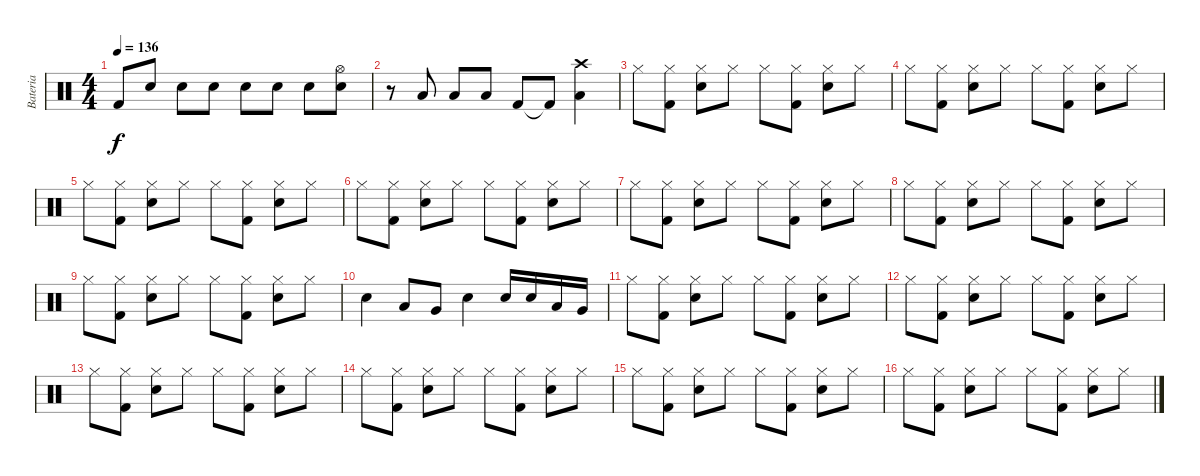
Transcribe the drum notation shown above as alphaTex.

\track ("Bateria" "Bateria") {instrument percussion}
\staff {score}
\articulation defaults
\ts (4 4)
\tempo 136
\clef neutral
\ks c "Kick (hit) 2".8{dy f} "Snare (hit) 2".8 "Snare (hit) 2".8 "Snare (hit) 2".8 "Snare (hit) 2".8 "Snare (hit) 2".8 "Snare (hit) 2".8
("Hi-Hat (open)" "Snare (hit) 2").8 |
r.8 "Low Tom (hit)".8 "Low Tom (hit)".8 "Low Tom (hit)".8 "Kick (hit) 2".8 "Kick (hit) 2"{t}.8 ("Low Tom (hit)" "Crash high (hit)").4 |
"Hi-Hat (closed)".8 ("Kick (hit) 2" "Hi-Hat (closed)").8 ("Snare (hit) 2" "Hi-Hat (closed)").8 "Hi-Hat (closed)".8 "Hi-Hat (closed)".8 ("Kick (hit) 2" "Hi-Hat (closed)").8 ("Hi-Hat (closed)" "Snare (hit) 2").8 "Hi-Hat (closed)".8 |
"Hi-Hat (closed)".8 ("Kick (hit) 2" "Hi-Hat (closed)").8 ("Snare (hit) 2" "Hi-Hat (closed)").8 "Hi-Hat (closed)".8 "Hi-Hat (closed)".8 ("Kick (hit) 2" "Hi-Hat (closed)").8 ("Hi-Hat (closed)" "Snare (hit) 2").8 "Hi-Hat (closed)".8 |
"Hi-Hat (closed)".8 ("Kick (hit) 2" "Hi-Hat (closed)").8 ("Snare (hit) 2" "Hi-Hat (closed)").8 "Hi-Hat (closed)".8 "Hi-Hat (closed)".8 ("Kick (hit) 2" "Hi-Hat (closed)").8 ("Hi-Hat (closed)" "Snare (hit) 2").8 "Hi-Hat (closed)".8 |
"Hi-Hat (closed)".8 ("Kick (hit) 2" "Hi-Hat (closed)").8 ("Snare (hit) 2" "Hi-Hat (closed)").8 "Hi-Hat (closed)".8 "Hi-Hat (closed)".8 ("Kick (hit) 2" "Hi-Hat (closed)").8 ("Hi-Hat (closed)" "Snare (hit) 2").8 "Hi-Hat (closed)".8 |
"Hi-Hat (closed)".8 ("Kick (hit) 2" "Hi-Hat (closed)").8 ("Snare (hit) 2" "Hi-Hat (closed)").8 "Hi-Hat (closed)".8 "Hi-Hat (closed)".8 ("Kick (hit) 2" "Hi-Hat (closed)").8 ("Hi-Hat (closed)" "Snare (hit) 2").8 "Hi-Hat (closed)".8 |
"Hi-Hat (closed)".8 ("Kick (hit) 2" "Hi-Hat (closed)").8 ("Snare (hit) 2" "Hi-Hat (closed)").8 "Hi-Hat (closed)".8 "Hi-Hat (closed)".8 ("Kick (hit) 2" "Hi-Hat (closed)").8 ("Hi-Hat (closed)" "Snare (hit) 2").8 "Hi-Hat (closed)".8 |
"Hi-Hat (closed)".8 ("Kick (hit) 2" "Hi-Hat (closed)").8 ("Snare (hit) 2" "Hi-Hat (closed)").8 "Hi-Hat (closed)".8 "Hi-Hat (closed)".8 ("Kick (hit) 2" "Hi-Hat (closed)").8 ("Hi-Hat (closed)" "Snare (hit) 2").8 "Hi-Hat (closed)".8 |
"Snare (hit) 2".4 "Low Tom (hit)".8 "Very Low Tom (hit)".8 "Snare (hit) 2".4 "Snare (hit) 2".16 "Snare (hit) 2".16 "Low Tom (hit)".16 "Very Low Tom (hit)".16 |
"Hi-Hat (closed)".8 ("Kick (hit) 2" "Hi-Hat (closed)").8 ("Snare (hit) 2" "Hi-Hat (closed)").8 "Hi-Hat (closed)".8 "Hi-Hat (closed)".8 ("Kick (hit) 2" "Hi-Hat (closed)").8 ("Hi-Hat (closed)" "Snare (hit) 2").8 "Hi-Hat (closed)".8 |
"Hi-Hat (closed)".8 ("Kick (hit) 2" "Hi-Hat (closed)").8 ("Snare (hit) 2" "Hi-Hat (closed)").8 "Hi-Hat (closed)".8 "Hi-Hat (closed)".8 ("Kick (hit) 2" "Hi-Hat (closed)").8 ("Hi-Hat (closed)" "Snare (hit) 2").8 "Hi-Hat (closed)".8 |
"Hi-Hat (closed)".8 ("Kick (hit) 2" "Hi-Hat (closed)").8 ("Snare (hit) 2" "Hi-Hat (closed)").8 "Hi-Hat (closed)".8 "Hi-Hat (closed)".8 ("Kick (hit) 2" "Hi-Hat (closed)").8 ("Hi-Hat (closed)" "Snare (hit) 2").8 "Hi-Hat (closed)".8 |
"Hi-Hat (closed)".8 ("Kick (hit) 2" "Hi-Hat (closed)").8 ("Snare (hit) 2" "Hi-Hat (closed)").8 "Hi-Hat (closed)".8 "Hi-Hat (closed)".8 ("Kick (hit) 2" "Hi-Hat (closed)").8 ("Hi-Hat (closed)" "Snare (hit) 2").8 "Hi-Hat (closed)".8 |
"Hi-Hat (closed)".8 ("Kick (hit) 2" "Hi-Hat (closed)").8 ("Snare (hit) 2" "Hi-Hat (closed)").8 "Hi-Hat (closed)".8 "Hi-Hat (closed)".8 ("Kick (hit) 2" "Hi-Hat (closed)").8 ("Hi-Hat (closed)" "Snare (hit) 2").8 "Hi-Hat (closed)".8 |
"Hi-Hat (closed)".8 ("Kick (hit) 2" "Hi-Hat (closed)").8 ("Snare (hit) 2" "Hi-Hat (closed)").8 "Hi-Hat (closed)".8 "Hi-Hat (closed)".8 ("Kick (hit) 2" "Hi-Hat (closed)").8 ("Hi-Hat (closed)" "Snare (hit) 2").8 "Hi-Hat (closed)".8
